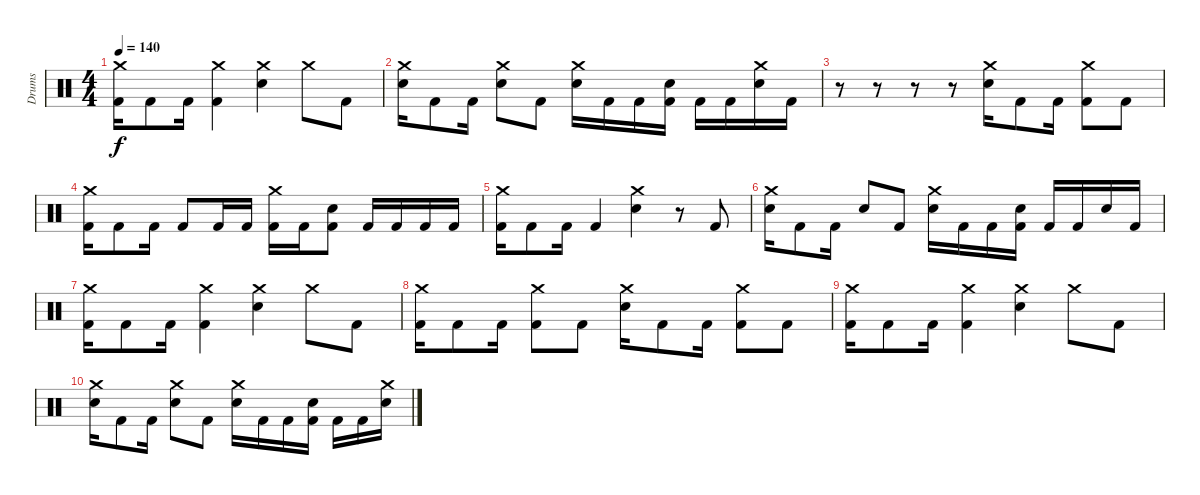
\track ("Drums" "Drums") {instrument percussion}
\staff {score}
\articulation defaults
\ts (4 4)
\tempo 140
\clef neutral
\ks c
("Crash medium (hit)" "Kick (hit) 2").16{dy f} "Kick (hit) 2".8 "Kick (hit) 2".16 ("Crash medium (hit)" "Kick (hit) 2").4 ("Crash medium (hit)" "Snare (hit) 2").4 "Crash medium (hit)".8 "Kick (hit) 2".8 |
("Crash medium (hit)" "Snare (hit) 2").16 "Kick (hit) 2".8 "Kick (hit) 2".16 ("Crash medium (hit)" "Snare (hit) 2").8 "Kick (hit) 2".8 ("Crash medium (hit)" "Snare (hit) 2").16 "Kick (hit) 2".16 "Kick (hit) 2".16 ("Snare (hit) 2" "Kick (hit) 2").16 "Kick (hit) 2".16 "Kick (hit) 2".16 ("Crash medium (hit)" "Snare (hit) 2").16 "Kick (hit) 2".16 |
r.8 r.8 r.8 r.8 ("Crash medium (hit)" "Snare (hit) 2").16 "Kick (hit) 2".8 "Kick (hit) 2".16 ("Crash medium (hit)" "Kick (hit) 2").8 "Kick (hit) 2".8 |
("Crash medium (hit)" "Kick (hit) 2").16 "Kick (hit) 2".8 "Kick (hit) 2".16 "Kick (hit) 2".8 "Kick (hit) 2".16 "Kick (hit) 2".16 ("Crash medium (hit)" "Kick (hit) 2").16 "Kick (hit) 2".16 ("Snare (hit) 2" "Kick (hit) 2").8 "Kick (hit) 2".16 "Kick (hit) 2".16 "Kick (hit) 2".16 "Kick (hit) 2".16 |
("Crash medium (hit)" "Kick (hit) 2").16 "Kick (hit) 2".8 "Kick (hit) 2".16 "Kick (hit) 2".4 ("Crash medium (hit)" "Snare (hit) 2").4 r.8 "Kick (hit) 2".8 |
("Crash medium (hit)" "Snare (hit) 2").16 "Kick (hit) 2".8 "Kick (hit) 2".16 "Snare (hit) 2".8 "Kick (hit) 2".8 ("Crash medium (hit)" "Snare (hit) 2").16 "Kick (hit) 2".16 "Kick (hit) 2".16 ("Snare (hit) 2" "Kick (hit) 2").16 "Kick (hit) 2".16 "Kick (hit) 2".16 "Snare (hit) 2".16 "Kick (hit) 2".16 |
("Crash medium (hit)" "Kick (hit) 2").16 "Kick (hit) 2".8 "Kick (hit) 2".16 ("Crash medium (hit)" "Kick (hit) 2").4 ("Crash medium (hit)" "Snare (hit) 2").4 "Crash medium (hit)".8 "Kick (hit) 2".8 |
("Crash medium (hit)" "Kick (hit) 2").16 "Kick (hit) 2".8 "Kick (hit) 2".16 ("Crash medium (hit)" "Kick (hit) 2").8 "Kick (hit) 2".8 ("Crash medium (hit)" "Snare (hit) 2").16 "Kick (hit) 2".8 "Kick (hit) 2".16 ("Crash medium (hit)" "Kick (hit) 2").8 "Kick (hit) 2".8 |
("Crash medium (hit)" "Kick (hit) 2").16 "Kick (hit) 2".8 "Kick (hit) 2".16 ("Crash medium (hit)" "Kick (hit) 2").4 ("Crash medium (hit)" "Snare (hit) 2").4 "Crash medium (hit)".8 "Kick (hit) 2".8 |
("Crash medium (hit)" "Snare (hit) 2").16 "Kick (hit) 2".8 "Kick (hit) 2".16 ("Crash medium (hit)" "Snare (hit) 2").8 "Kick (hit) 2".8 ("Crash medium (hit)" "Snare (hit) 2").16 "Kick (hit) 2".16 "Kick (hit) 2".16 ("Snare (hit) 2" "Kick (hit) 2").16 "Kick (hit) 2".16 "Kick (hit) 2".16 ("Crash medium (hit)" "Snare (hit) 2").16
